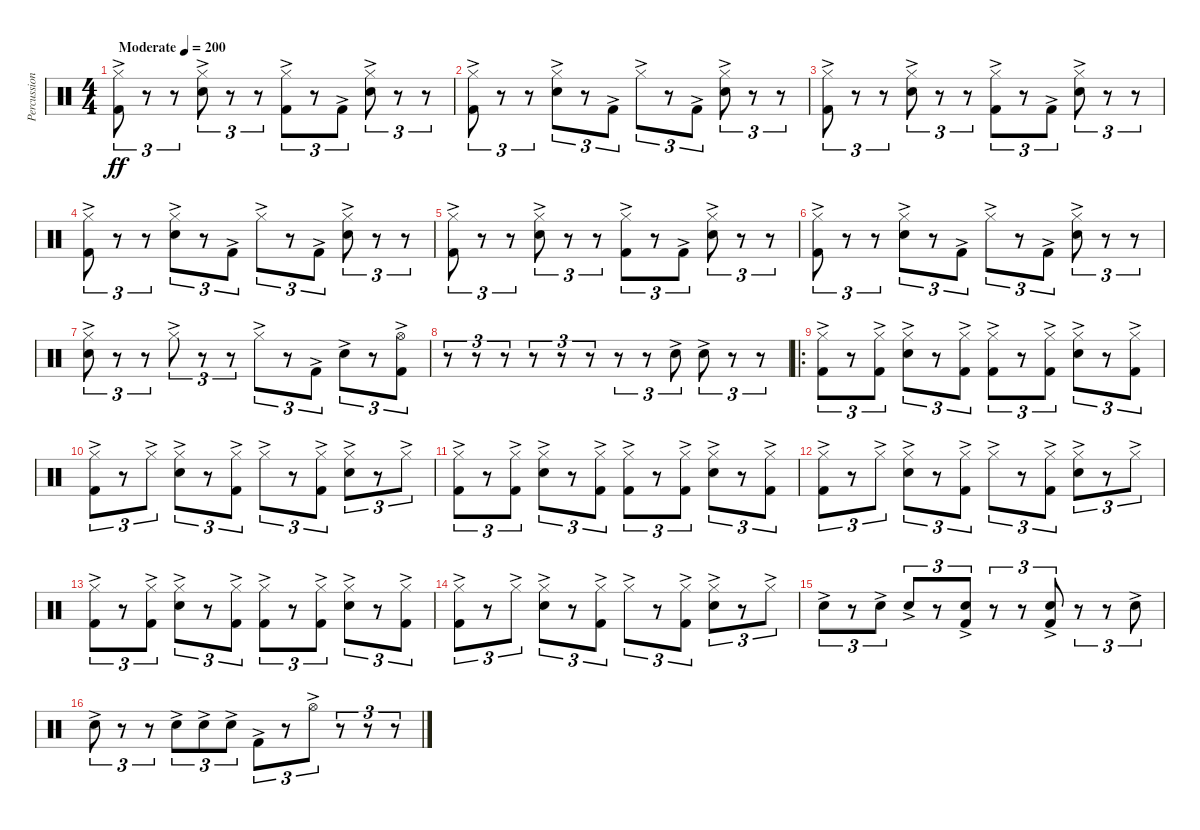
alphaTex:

\track ("Percussion" "Percussion") {instrument percussion}
\staff {score}
\articulation defaults
\ts (4 4)
\tempo (200 "Moderate")
\clef neutral
\ks c
("Hi-Hat (closed)"{ac} "Kick (hit) 2"{ac}).8{tu (3 2) dy ff} r.8{tu (3 2)} r.8{tu (3 2)} ("Hi-Hat (closed)"{ac} "Snare (hit) 2"{ac}).8{tu (3 2)} r.8{tu (3 2)} r.8{tu (3 2)} ("Hi-Hat (closed)"{ac} "Kick (hit) 2"{ac}).8{tu (3 2)} r.8{tu (3 2)} "Kick (hit) 2"{ac}.8{tu (3 2)} ("Hi-Hat (closed)"{ac} "Snare (hit) 2"{ac}).8{tu (3 2)} r.8{tu (3 2)} r.8{tu (3 2)} |
("Hi-Hat (closed)"{ac} "Kick (hit) 2"{ac}).8{tu (3 2)} r.8{tu (3 2)} r.8{tu (3 2)} ("Hi-Hat (closed)"{ac} "Snare (hit) 2"{ac}).8{tu (3 2)} r.8{tu (3 2)} "Kick (hit) 2"{ac}.8{tu (3 2)} "Hi-Hat (closed)"{ac}.8{tu (3 2)} r.8{tu (3 2)} "Kick (hit) 2"{ac}.8{tu (3 2)} ("Hi-Hat (closed)"{ac} "Snare (hit) 2"{ac}).8{tu (3 2)} r.8{tu (3 2)} r.8{tu (3 2)} |
("Hi-Hat (closed)"{ac} "Kick (hit) 2"{ac}).8{tu (3 2)} r.8{tu (3 2)} r.8{tu (3 2)} ("Hi-Hat (closed)"{ac} "Snare (hit) 2"{ac}).8{tu (3 2)} r.8{tu (3 2)} r.8{tu (3 2)} ("Hi-Hat (closed)"{ac} "Kick (hit) 2"{ac}).8{tu (3 2)} r.8{tu (3 2)} "Kick (hit) 2"{ac}.8{tu (3 2)} ("Hi-Hat (closed)"{ac} "Snare (hit) 2"{ac}).8{tu (3 2)} r.8{tu (3 2)} r.8{tu (3 2)} |
("Hi-Hat (closed)"{ac} "Kick (hit) 2"{ac}).8{tu (3 2)} r.8{tu (3 2)} r.8{tu (3 2)} ("Hi-Hat (closed)"{ac} "Snare (hit) 2"{ac}).8{tu (3 2)} r.8{tu (3 2)} "Kick (hit) 2"{ac}.8{tu (3 2)} "Hi-Hat (closed)"{ac}.8{tu (3 2)} r.8{tu (3 2)} "Kick (hit) 2"{ac}.8{tu (3 2)} ("Hi-Hat (closed)"{ac} "Snare (hit) 2"{ac}).8{tu (3 2)} r.8{tu (3 2)} r.8{tu (3 2)} |
("Hi-Hat (closed)"{ac} "Kick (hit) 2"{ac}).8{tu (3 2)} r.8{tu (3 2)} r.8{tu (3 2)} ("Hi-Hat (closed)"{ac} "Snare (hit) 2"{ac}).8{tu (3 2)} r.8{tu (3 2)} r.8{tu (3 2)} ("Hi-Hat (closed)"{ac} "Kick (hit) 2"{ac}).8{tu (3 2)} r.8{tu (3 2)} "Kick (hit) 2"{ac}.8{tu (3 2)} ("Hi-Hat (closed)"{ac} "Snare (hit) 2"{ac}).8{tu (3 2)} r.8{tu (3 2)} r.8{tu (3 2)} |
("Hi-Hat (closed)"{ac} "Kick (hit) 2"{ac}).8{tu (3 2)} r.8{tu (3 2)} r.8{tu (3 2)} ("Hi-Hat (closed)"{ac} "Snare (hit) 2"{ac}).8{tu (3 2)} r.8{tu (3 2)} "Kick (hit) 2"{ac}.8{tu (3 2)} "Hi-Hat (closed)"{ac}.8{tu (3 2)} r.8{tu (3 2)} "Kick (hit) 2"{ac}.8{tu (3 2)} ("Hi-Hat (closed)"{ac} "Snare (hit) 2"{ac}).8{tu (3 2)} r.8{tu (3 2)} r.8{tu (3 2)} |
("Hi-Hat (closed)"{ac} "Snare (hit) 2"{ac}).8{tu (3 2)} r.8{tu (3 2)} r.8{tu (3 2)} "Hi-Hat (closed)"{ac}.8{tu (3 2)} r.8{tu (3 2)} r.8{tu (3 2)} "Hi-Hat (closed)"{ac}.8{tu (3 2)} r.8{tu (3 2)} "Kick (hit) 2"{ac}.8{tu (3 2)} "Snare (hit) 2"{ac}.8{tu (3 2)} r.8{tu (3 2)} ("Hi-Hat (open)"{ac} "Kick (hit) 2"{ac}).8{tu (3 2)} |
r.8{tu (3 2)} r.8{tu (3 2)} r.8{tu (3 2)} r.8{tu (3 2)} r.8{tu (3 2)} r.8{tu (3 2)} r.8{tu (3 2)} r.8{tu (3 2)} "Snare (hit) 2"{ac}.8{tu (3 2)} "Snare (hit) 2"{ac}.8{tu (3 2)} r.8{tu (3 2)} r.8{tu (3 2)} |
\ro
("Hi-Hat (closed)"{ac} "Kick (hit) 2"{ac}).8{tu (3 2)} r.8{tu (3 2)} ("Hi-Hat (closed)"{ac} "Kick (hit) 2"{ac}).8{tu (3 2)} ("Hi-Hat (closed)"{ac} "Snare (hit) 2"{ac}).8{tu (3 2)} r.8{tu (3 2)} ("Hi-Hat (closed)"{ac} "Kick (hit) 2"{ac}).8{tu (3 2)} ("Hi-Hat (closed)"{ac} "Kick (hit) 2"{ac}).8{tu (3 2)} r.8{tu (3 2)} ("Hi-Hat (closed)"{ac} "Kick (hit) 2"{ac}).8{tu (3 2)} ("Hi-Hat (closed)"{ac} "Snare (hit) 2"{ac}).8{tu (3 2)} r.8{tu (3 2)} ("Hi-Hat (closed)"{ac} "Kick (hit) 2"{ac}).8{tu (3 2)} |
("Hi-Hat (closed)"{ac} "Kick (hit) 2"{ac}).8{tu (3 2)} r.8{tu (3 2)} "Hi-Hat (closed)"{ac}.8{tu (3 2)} ("Hi-Hat (closed)"{ac} "Snare (hit) 2"{ac}).8{tu (3 2)} r.8{tu (3 2)} ("Hi-Hat (closed)"{ac} "Kick (hit) 2"{ac}).8{tu (3 2)} "Hi-Hat (closed)"{ac}.8{tu (3 2)} r.8{tu (3 2)} ("Hi-Hat (closed)"{ac} "Kick (hit) 2"{ac}).8{tu (3 2)} ("Hi-Hat (closed)"{ac} "Snare (hit) 2"{ac}).8{tu (3 2)} r.8{tu (3 2)} "Hi-Hat (closed)"{ac}.8{tu (3 2)} |
("Hi-Hat (closed)"{ac} "Kick (hit) 2"{ac}).8{tu (3 2)} r.8{tu (3 2)} ("Hi-Hat (closed)"{ac} "Kick (hit) 2"{ac}).8{tu (3 2)} ("Hi-Hat (closed)"{ac} "Snare (hit) 2"{ac}).8{tu (3 2)} r.8{tu (3 2)} ("Hi-Hat (closed)"{ac} "Kick (hit) 2"{ac}).8{tu (3 2)} ("Hi-Hat (closed)"{ac} "Kick (hit) 2"{ac}).8{tu (3 2)} r.8{tu (3 2)} ("Hi-Hat (closed)"{ac} "Kick (hit) 2"{ac}).8{tu (3 2)} ("Hi-Hat (closed)"{ac} "Snare (hit) 2"{ac}).8{tu (3 2)} r.8{tu (3 2)} ("Hi-Hat (closed)"{ac} "Kick (hit) 2"{ac}).8{tu (3 2)} |
("Hi-Hat (closed)"{ac} "Kick (hit) 2"{ac}).8{tu (3 2)} r.8{tu (3 2)} "Hi-Hat (closed)"{ac}.8{tu (3 2)} ("Hi-Hat (closed)"{ac} "Snare (hit) 2"{ac}).8{tu (3 2)} r.8{tu (3 2)} ("Hi-Hat (closed)"{ac} "Kick (hit) 2"{ac}).8{tu (3 2)} "Hi-Hat (closed)"{ac}.8{tu (3 2)} r.8{tu (3 2)} ("Hi-Hat (closed)"{ac} "Kick (hit) 2"{ac}).8{tu (3 2)} ("Hi-Hat (closed)"{ac} "Snare (hit) 2"{ac}).8{tu (3 2)} r.8{tu (3 2)} "Hi-Hat (closed)"{ac}.8{tu (3 2)} |
("Hi-Hat (closed)"{ac} "Kick (hit) 2"{ac}).8{tu (3 2)} r.8{tu (3 2)} ("Hi-Hat (closed)"{ac} "Kick (hit) 2"{ac}).8{tu (3 2)} ("Hi-Hat (closed)"{ac} "Snare (hit) 2"{ac}).8{tu (3 2)} r.8{tu (3 2)} ("Hi-Hat (closed)"{ac} "Kick (hit) 2"{ac}).8{tu (3 2)} ("Hi-Hat (closed)"{ac} "Kick (hit) 2"{ac}).8{tu (3 2)} r.8{tu (3 2)} ("Hi-Hat (closed)"{ac} "Kick (hit) 2"{ac}).8{tu (3 2)} ("Hi-Hat (closed)"{ac} "Snare (hit) 2"{ac}).8{tu (3 2)} r.8{tu (3 2)} ("Hi-Hat (closed)"{ac} "Kick (hit) 2"{ac}).8{tu (3 2)} |
("Hi-Hat (closed)"{ac} "Kick (hit) 2"{ac}).8{tu (3 2)} r.8{tu (3 2)} "Hi-Hat (closed)"{ac}.8{tu (3 2)} ("Hi-Hat (closed)"{ac} "Snare (hit) 2"{ac}).8{tu (3 2)} r.8{tu (3 2)} ("Hi-Hat (closed)"{ac} "Kick (hit) 2"{ac}).8{tu (3 2)} "Hi-Hat (closed)"{ac}.8{tu (3 2)} r.8{tu (3 2)} ("Hi-Hat (closed)"{ac} "Kick (hit) 2"{ac}).8{tu (3 2)} ("Hi-Hat (closed)"{ac} "Snare (hit) 2"{ac}).8{tu (3 2)} r.8{tu (3 2)} "Hi-Hat (closed)"{ac}.8{tu (3 2)} |
"Snare (hit) 2"{ac}.8{tu (3 2)} r.8{tu (3 2)} "Snare (hit) 2"{ac}.8{tu (3 2)} "Snare (hit) 2"{ac}.8{tu (3 2)} r.8{tu (3 2)} ("Snare (hit) 2"{ac} "Kick (hit) 2"{ac}).8{tu (3 2)} r.8{tu (3 2)} r.8{tu (3 2)} ("Snare (hit) 2"{ac} "Kick (hit) 2"{ac}).8{tu (3 2)} r.8{tu (3 2)} r.8{tu (3 2)} "Snare (hit) 2"{ac}.8{tu (3 2)} |
"Snare (hit) 2"{ac}.8{tu (3 2)} r.8{tu (3 2)} r.8{tu (3 2)} "Snare (hit) 2"{ac}.8{tu (3 2)} "Snare (hit) 2"{ac}.8{tu (3 2)} "Snare (hit) 2"{ac}.8{tu (3 2)} "Kick (hit) 2"{ac}.8{tu (3 2)} r.8{tu (3 2)} "Hi-Hat (open)"{ac}.8{tu (3 2)} r.8{tu (3 2)} r.8{tu (3 2)} r.8{tu (3 2)}
